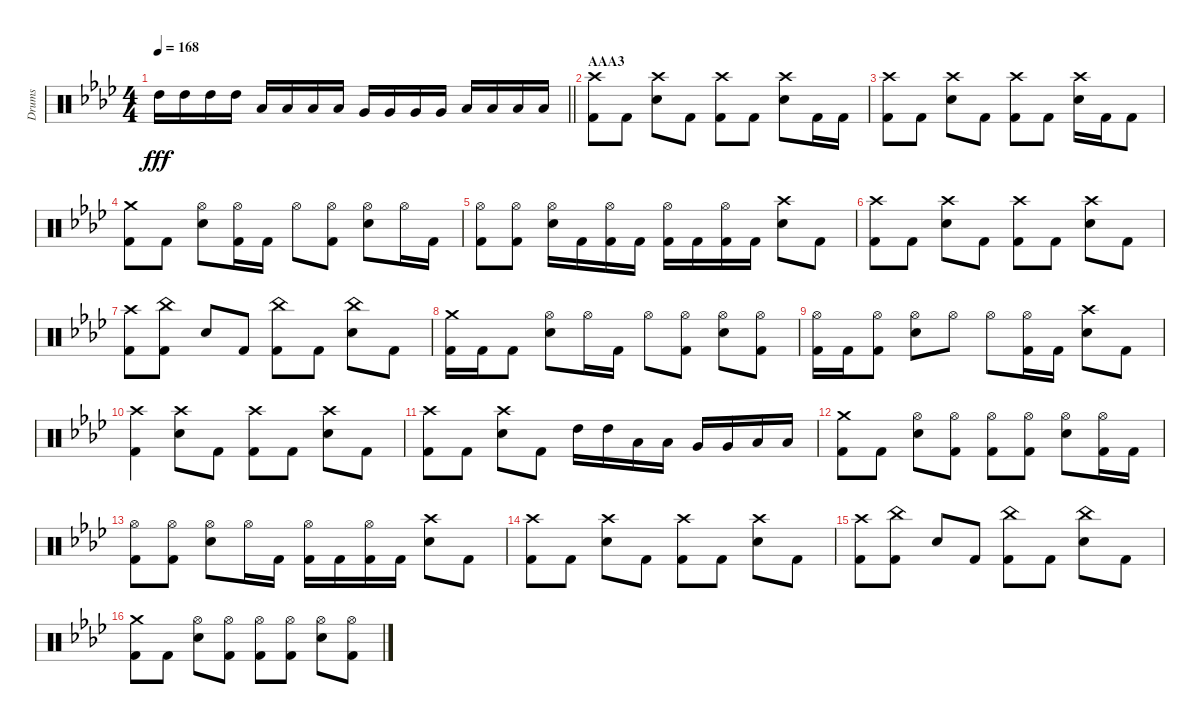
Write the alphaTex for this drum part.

\track ("Drums" "Drums") {instrument percussion}
\staff {score}
\articulation defaults
\ts (4 4)
\tempo 168
\clef neutral
\barLineRight lightlight
\ks fminor "High Tom (hit)".16{dy fff} "High Tom (hit)".16 "High Tom (hit)".16 "High Tom (hit)".16 "Low Tom (hit)".16 "Low Tom (hit)".16 "Low Tom (hit)".16 "Low Tom (hit)".16 "Very Low Tom (hit)".16 "Very Low Tom (hit)".16 "Very Low Tom (hit)".16 "Very Low Tom (hit)".16 "Low Floor Tom (hit)".16 "Low Floor Tom (hit)".16 "Low Floor Tom (hit)".16 "Low Floor Tom (hit)".16
|
\section ("" "AAA3")
("Crash high (hit)" "Kick (hit) 2").8 "Kick (hit) 2".8 ("Crash high (hit)" "Snare (hit) 2").8 "Kick (hit) 2".8 ("Crash high (hit)" "Kick (hit) 2").8 "Kick (hit) 2".8 ("Crash high (hit)" "Snare (hit) 2").8 "Kick (hit) 2".16 "Kick (hit) 2".16 |
("Crash high (hit)" "Kick (hit) 2").8 "Kick (hit) 2".8 ("Crash high (hit)" "Snare (hit) 2").8 "Kick (hit) 2".8 ("Crash high (hit)" "Kick (hit) 2").8 "Kick (hit) 2".8 ("Crash high (hit)" "Snare (hit) 2").16 "Kick (hit) 2".16 "Kick (hit) 2".8 |
("Crash medium (hit)" "Kick (hit) 2").8 "Kick (hit) 2".8 ("Hi-Hat (open)" "Snare (hit) 2").8 ("Hi-Hat (open)" "Kick (hit) 2").16 "Kick (hit) 2".16 "Hi-Hat (open)".8 ("Hi-Hat (open)" "Kick (hit) 2").8 ("Snare (hit) 2" "Hi-Hat (open)").8 "Hi-Hat (open)".16 "Kick (hit) 2".16 |
("Hi-Hat (open)" "Kick (hit) 2").8 ("Hi-Hat (open)" "Kick (hit) 2").8 ("Snare (hit) 2" "Hi-Hat (open)").16 "Kick (hit) 2".16 ("Hi-Hat (open)" "Kick (hit) 2").16 "Kick (hit) 2".16 ("Hi-Hat (open)" "Kick (hit) 2").16 "Kick (hit) 2".16 ("Hi-Hat (open)" "Kick (hit) 2").16 "Kick (hit) 2".16 ("Crash high (hit)" "Snare (hit) 2").8 "Kick (hit) 2".8 |
("Crash high (hit)" "Kick (hit) 2").8 "Kick (hit) 2".8 ("Crash high (hit)" "Snare (hit) 2").8 "Kick (hit) 2".8 ("Crash high (hit)" "Kick (hit) 2").8 "Kick (hit) 2".8 ("Crash high (hit)" "Snare (hit) 2").8 "Kick (hit) 2".8 |
("Crash high (hit)" "Kick (hit) 2").8 ("China (hit)" "Kick (hit) 2").8 "Snare (hit) 2".8 "Kick (hit) 2".8 ("China (hit)" "Kick (hit) 2").8 "Kick (hit) 2".8 ("China (hit)" "Snare (hit) 2").8 "Kick (hit) 2".8 |
("Crash medium (hit)" "Kick (hit) 2").16 "Kick (hit) 2".16 "Kick (hit) 2".8 ("Hi-Hat (open)" "Snare (hit) 2").8 "Hi-Hat (open)".16 "Kick (hit) 2".16 "Hi-Hat (open)".8 ("Hi-Hat (open)" "Kick (hit) 2").8 ("Snare (hit) 2" "Hi-Hat (open)").8 ("Hi-Hat (open)" "Kick (hit) 2").8 |
("Hi-Hat (open)" "Kick (hit) 2").16 "Kick (hit) 2".16 ("Hi-Hat (open)" "Kick (hit) 2").8 ("Snare (hit) 2" "Hi-Hat (open)").8 "Hi-Hat (open)".8 "Hi-Hat (open)".8 ("Hi-Hat (open)" "Kick (hit) 2").16 "Kick (hit) 2".16 ("Crash high (hit)" "Snare (hit) 2").8 "Kick (hit) 2".8 |
("Crash high (hit)" "Kick (hit) 2").4 ("Crash high (hit)" "Snare (hit) 2").8 "Kick (hit) 2".8 ("Crash high (hit)" "Kick (hit) 2").8 "Kick (hit) 2".8 ("Crash high (hit)" "Snare (hit) 2").8 "Kick (hit) 2".8 |
("Crash high (hit)" "Kick (hit) 2").8 "Kick (hit) 2".8 ("Crash high (hit)" "Snare (hit) 2").8 "Kick (hit) 2".8 "High Tom (hit)".16 "High Tom (hit)".16 "Low Tom (hit)".16 "Low Tom (hit)".16 "Very Low Tom (hit)".16 "Very Low Tom (hit)".16 "Low Floor Tom (hit)".16 "Low Floor Tom (hit)".16 |
("Crash medium (hit)" "Kick (hit) 2").8 "Kick (hit) 2".8 ("Hi-Hat (open)" "Snare (hit) 2").8 ("Hi-Hat (open)" "Kick (hit) 2").8 ("Hi-Hat (open)" "Kick (hit) 2").8 ("Hi-Hat (open)" "Kick (hit) 2").8 ("Snare (hit) 2" "Hi-Hat (open)").8 ("Hi-Hat (open)" "Kick (hit) 2").16 "Kick (hit) 2".16 |
("Hi-Hat (open)" "Kick (hit) 2").8 ("Hi-Hat (open)" "Kick (hit) 2").8 ("Snare (hit) 2" "Hi-Hat (open)").8 "Hi-Hat (open)".16 "Kick (hit) 2".16 ("Hi-Hat (open)" "Kick (hit) 2").16 "Kick (hit) 2".16 ("Hi-Hat (open)" "Kick (hit) 2").16 "Kick (hit) 2".16 ("Crash high (hit)" "Snare (hit) 2").8 "Kick (hit) 2".8 |
("Crash high (hit)" "Kick (hit) 2").8 "Kick (hit) 2".8 ("Crash high (hit)" "Snare (hit) 2").8 "Kick (hit) 2".8 ("Crash high (hit)" "Kick (hit) 2").8 "Kick (hit) 2".8 ("Crash high (hit)" "Snare (hit) 2").8 "Kick (hit) 2".8 |
("Crash high (hit)" "Kick (hit) 2").8 ("China (hit)" "Kick (hit) 2").8 "Snare (hit) 2".8 "Kick (hit) 2".8 ("China (hit)" "Kick (hit) 2").8 "Kick (hit) 2".8 ("China (hit)" "Snare (hit) 2").8 "Kick (hit) 2".8 |
("Crash medium (hit)" "Kick (hit) 2").8 "Kick (hit) 2".8 ("Hi-Hat (open)" "Snare (hit) 2").8 ("Hi-Hat (open)" "Kick (hit) 2").8 ("Hi-Hat (open)" "Kick (hit) 2").8 ("Hi-Hat (open)" "Kick (hit) 2").8 ("Snare (hit) 2" "Hi-Hat (open)").8 ("Hi-Hat (open)" "Kick (hit) 2").8
